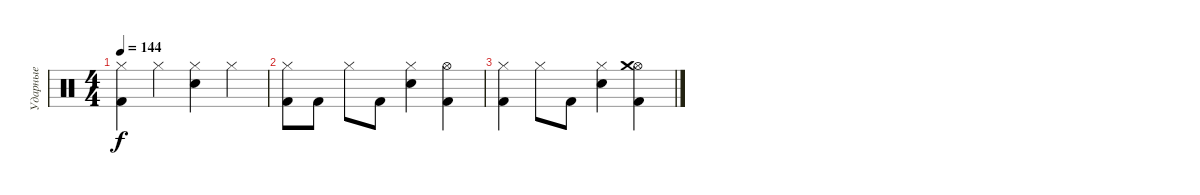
\track ("Ударные" "Ударные") {instrument percussion}
\staff {score}
\articulation defaults
\ts (4 4)
\tempo 144
\clef neutral
\ks c
("Kick (hit) 2" "Hi-Hat (closed)").4{dy f} "Hi-Hat (closed)".4 ("Snare (hit) 2" "Hi-Hat (closed)").4 "Hi-Hat (closed)".4 |
("Kick (hit) 2" "Hi-Hat (closed)").8 "Kick (hit) 2".8 "Hi-Hat (closed)".8 "Kick (hit) 2".8 ("Snare (hit) 2" "Hi-Hat (closed)").4 ("Kick (hit) 2" "Hi-Hat (open)").4 |
("Kick (hit) 2" "Hi-Hat (closed)").4 "Hi-Hat (closed)".8 "Kick (hit) 2".8 ("Snare (hit) 2" "Hi-Hat (closed)").4 ("Kick (hit) 2" "Hi-Hat (open)" "Crash medium (hit)").4
